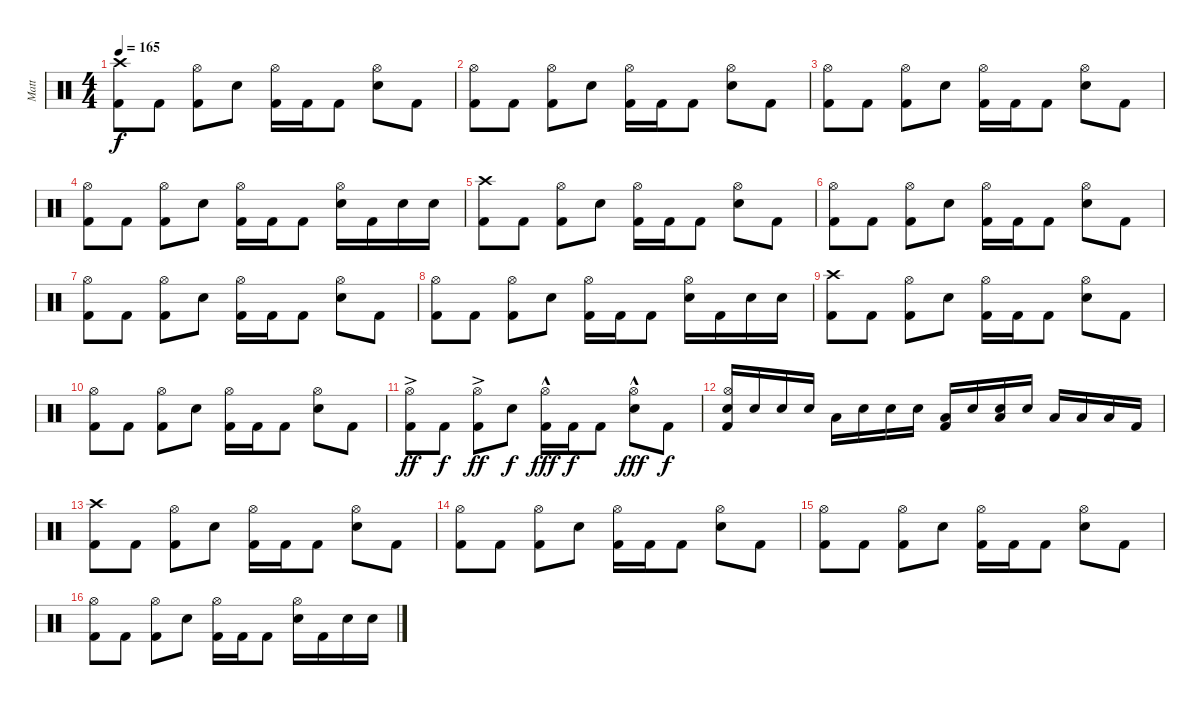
\track ("Matt" "Matt") {instrument percussion}
\staff {score}
\articulation defaults
\ts (4 4)
\tempo 165
\clef neutral
\ks c
("Crash high (hit)" "Kick (hit) 2").8{dy f} "Kick (hit) 2".8 ("Hi-Hat (open)" "Kick (hit) 2").8 "Electric Snare (hit)".8 ("Hi-Hat (open)" "Kick (hit) 2").16 "Kick (hit) 2".16 "Kick (hit) 2".8 ("Hi-Hat (open)" "Electric Snare (hit)").8 "Kick (hit) 2".8 |
("Hi-Hat (open)" "Kick (hit) 2").8 "Kick (hit) 2".8 ("Hi-Hat (open)" "Kick (hit) 2").8 "Electric Snare (hit)".8 ("Hi-Hat (open)" "Kick (hit) 2").16 "Kick (hit) 2".16 "Kick (hit) 2".8 ("Hi-Hat (open)" "Electric Snare (hit)").8 "Kick (hit) 2".8 |
("Hi-Hat (open)" "Kick (hit) 2").8 "Kick (hit) 2".8 ("Hi-Hat (open)" "Kick (hit) 2").8 "Electric Snare (hit)".8 ("Hi-Hat (open)" "Kick (hit) 2").16 "Kick (hit) 2".16 "Kick (hit) 2".8 ("Hi-Hat (open)" "Electric Snare (hit)").8 "Kick (hit) 2".8 |
("Hi-Hat (open)" "Kick (hit) 2").8 "Kick (hit) 2".8 ("Hi-Hat (open)" "Kick (hit) 2").8 "Electric Snare (hit)".8 ("Hi-Hat (open)" "Kick (hit) 2").16 "Kick (hit) 2".16 "Kick (hit) 2".8 ("Hi-Hat (open)" "Electric Snare (hit)").16 "Kick (hit) 2".16 "Electric Snare (hit)".16 "Electric Snare (hit)".16 |
("Crash high (hit)" "Kick (hit) 2").8 "Kick (hit) 2".8 ("Hi-Hat (open)" "Kick (hit) 2").8 "Electric Snare (hit)".8 ("Hi-Hat (open)" "Kick (hit) 2").16 "Kick (hit) 2".16 "Kick (hit) 2".8 ("Hi-Hat (open)" "Electric Snare (hit)").8 "Kick (hit) 2".8 |
("Hi-Hat (open)" "Kick (hit) 2").8 "Kick (hit) 2".8 ("Hi-Hat (open)" "Kick (hit) 2").8 "Electric Snare (hit)".8 ("Hi-Hat (open)" "Kick (hit) 2").16 "Kick (hit) 2".16 "Kick (hit) 2".8 ("Hi-Hat (open)" "Electric Snare (hit)").8 "Kick (hit) 2".8 |
("Hi-Hat (open)" "Kick (hit) 2").8 "Kick (hit) 2".8 ("Hi-Hat (open)" "Kick (hit) 2").8 "Electric Snare (hit)".8 ("Hi-Hat (open)" "Kick (hit) 2").16 "Kick (hit) 2".16 "Kick (hit) 2".8 ("Hi-Hat (open)" "Electric Snare (hit)").8 "Kick (hit) 2".8 |
("Hi-Hat (open)" "Kick (hit) 2").8 "Kick (hit) 2".8 ("Hi-Hat (open)" "Kick (hit) 2").8 "Electric Snare (hit)".8 ("Hi-Hat (open)" "Kick (hit) 2").16 "Kick (hit) 2".16 "Kick (hit) 2".8 ("Hi-Hat (open)" "Electric Snare (hit)").16 "Kick (hit) 2".16 "Electric Snare (hit)".16 "Electric Snare (hit)".16 |
("Crash high (hit)" "Kick (hit) 2").8 "Kick (hit) 2".8 ("Hi-Hat (open)" "Kick (hit) 2").8 "Electric Snare (hit)".8 ("Hi-Hat (open)" "Kick (hit) 2").16 "Kick (hit) 2".16 "Kick (hit) 2".8 ("Hi-Hat (open)" "Electric Snare (hit)").8 "Kick (hit) 2".8 |
("Hi-Hat (open)" "Kick (hit) 2").8 "Kick (hit) 2".8 ("Hi-Hat (open)" "Kick (hit) 2").8 "Electric Snare (hit)".8 ("Hi-Hat (open)" "Kick (hit) 2").16 "Kick (hit) 2".16 "Kick (hit) 2".8 ("Hi-Hat (open)" "Electric Snare (hit)").8 "Kick (hit) 2".8 |
("Hi-Hat (open)"{ac} "Kick (hit) 2").8{dy ff} "Kick (hit) 2".8{dy f} ("Hi-Hat (open)"{ac} "Kick (hit) 2").8{dy ff} "Electric Snare (hit)".8{dy f} ("Hi-Hat (open)"{hac} "Kick (hit) 2").16{dy fff} "Kick (hit) 2".16{dy f} "Kick (hit) 2".8 ("Hi-Hat (open)"{hac} "Electric Snare (hit)").8{dy fff} "Kick (hit) 2".8{dy f} |
("Hi-Hat (open)" "Electric Snare (hit)" "Kick (hit) 2").16 "Electric Snare (hit)".16 "Electric Snare (hit)".16 "Electric Snare (hit)".16 "Low Tom (hit)".16 "Electric Snare (hit)".16 "Electric Snare (hit)".16 "Electric Snare (hit)".16 ("Low Tom (hit)" "Kick (hit) 2").16 "Electric Snare (hit)".16 ("Low Tom (hit)" "Electric Snare (hit)").16 "Electric Snare (hit)".16 "Low Tom (hit)".16 "Low Tom (hit)".16 "Low Tom (hit)".16 "Kick (hit) 2".16 |
("Crash high (hit)" "Kick (hit) 2").8 "Kick (hit) 2".8 ("Hi-Hat (open)" "Kick (hit) 2").8 "Electric Snare (hit)".8 ("Hi-Hat (open)" "Kick (hit) 2").16 "Kick (hit) 2".16 "Kick (hit) 2".8 ("Hi-Hat (open)" "Electric Snare (hit)").8 "Kick (hit) 2".8 |
("Hi-Hat (open)" "Kick (hit) 2").8 "Kick (hit) 2".8 ("Hi-Hat (open)" "Kick (hit) 2").8 "Electric Snare (hit)".8 ("Hi-Hat (open)" "Kick (hit) 2").16 "Kick (hit) 2".16 "Kick (hit) 2".8 ("Hi-Hat (open)" "Electric Snare (hit)").8 "Kick (hit) 2".8 |
("Hi-Hat (open)" "Kick (hit) 2").8 "Kick (hit) 2".8 ("Hi-Hat (open)" "Kick (hit) 2").8 "Electric Snare (hit)".8 ("Hi-Hat (open)" "Kick (hit) 2").16 "Kick (hit) 2".16 "Kick (hit) 2".8 ("Hi-Hat (open)" "Electric Snare (hit)").8 "Kick (hit) 2".8 |
("Hi-Hat (open)" "Kick (hit) 2").8 "Kick (hit) 2".8 ("Hi-Hat (open)" "Kick (hit) 2").8 "Electric Snare (hit)".8 ("Hi-Hat (open)" "Kick (hit) 2").16 "Kick (hit) 2".16 "Kick (hit) 2".8 ("Hi-Hat (open)" "Electric Snare (hit)").16 "Kick (hit) 2".16 "Electric Snare (hit)".16 "Electric Snare (hit)".16
